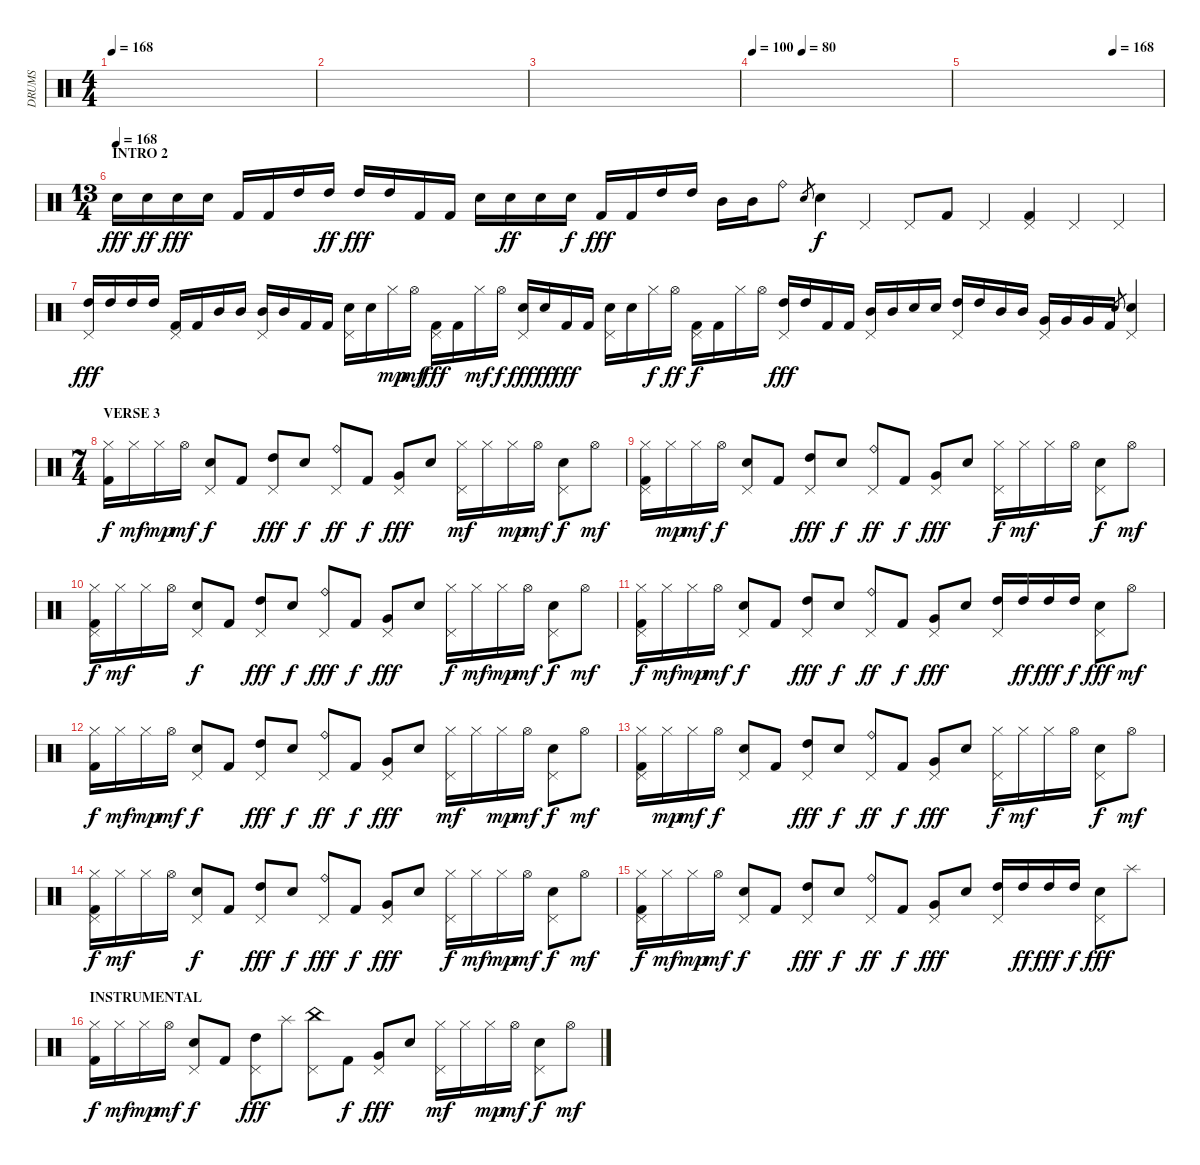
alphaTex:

\track ("DRUMS" "DRUMS") {instrument percussion}
\staff {score}
\articulation defaults
\ts (4 4)
\tempo 168
\clef neutral
\ks c
|
|
|
\tempo 100
\tempo (80 0.25)
|
\tempo (168 0.75)
|
\ts (13 4)
\section ("" "INTRO 2")
\tempo 164
\tempo (168)
"Electric Snare (hit)".16{dy fff} "Electric Snare (hit)".16{dy ff} "Electric Snare (hit)".16{dy fff} "Electric Snare (hit)".16 "Kick (hit) 2".16 "Kick (hit) 2".16 "High Tom (hit)".16 "High Tom (hit)".16{dy ff} "High Tom (hit)".16{dy fff} "High Tom (hit)".16 "Kick (hit) 2".16 "Kick (hit) 2".16 "Electric Snare (hit)".16 "Electric Snare (hit)".16{dy ff} "Electric Snare (hit)".16 "Electric Snare (hit)".16{dy f} "Kick (hit) 2".16{dy fff} "Kick (hit) 2".16 "High Tom (hit)".16 "High Tom (hit)".16 "Mid Tom (hit)".16 "Mid Tom (hit)".16 "Ride (bell)".8 "Electric Snare (hit)"{h}.8{gr} "Electric Snare (hit)".4{dy f} "Pedal Hi-Hat (hit)".4 "Pedal Hi-Hat (hit)".8 "Kick (hit) 2".8 "Pedal Hi-Hat (hit)".4 ("Pedal Hi-Hat (hit)" "Kick (hit) 2").4 "Pedal Hi-Hat (hit)".4 "Pedal Hi-Hat (hit)".4 |
("High Tom (hit)" "Pedal Hi-Hat (hit)").16{dy fff} "High Tom (hit)".16 "High Tom (hit)".16 "High Tom (hit)".16 ("Pedal Hi-Hat (hit)" "Kick (hit) 2").16 "Kick (hit) 2".16 "Mid Tom (hit)".16 "Mid Tom (hit)".16 ("Mid Tom (hit)" "Pedal Hi-Hat (hit)").16 "Mid Tom (hit)".16 "Kick (hit) 2".16 "Kick (hit) 2".16 ("Electric Snare (hit)" "Pedal Hi-Hat (hit)").16 "Electric Snare (hit)".16 "Hi-Hat (closed)".16{dy mp} "Hi-Hat (open)".16{dy mf} ("Pedal Hi-Hat (hit)" "Kick (hit) 2").16{dy fff} "Kick (hit) 2".16 "Hi-Hat (closed)".16{dy mf} "Hi-Hat (open)".16{dy f} ("Electric Snare (hit)" "Pedal Hi-Hat (hit)").16{dy fff} "Electric Snare (hit)".16{dy ff} "Kick (hit) 2".16{dy fff} "Kick (hit) 2".16 ("Electric Snare (hit)" "Pedal Hi-Hat (hit)").16 "Electric Snare (hit)".16 "Hi-Hat (closed)".16{dy f} "Hi-Hat (open)".16{dy ff} ("Pedal Hi-Hat (hit)" "Kick (hit) 2").16{dy f} "Kick (hit) 2".16 "Hi-Hat (closed)".16 "Hi-Hat (open)".16 ("High Tom (hit)" "Pedal Hi-Hat (hit)").16{dy fff} "High Tom (hit)".16 "Kick (hit) 2".16 "Kick (hit) 2".16 ("Mid Tom (hit)" "Pedal Hi-Hat (hit)").16 "Mid Tom (hit)".16 "Electric Snare (hit)".16 "Electric Snare (hit)".16 ("High Tom (hit)" "Pedal Hi-Hat (hit)").16 "High Tom (hit)".16 "Mid Tom (hit)".16 "Mid Tom (hit)".16 ("Very Low Tom (hit)" "Pedal Hi-Hat (hit)").16 "Very Low Tom (hit)".16 "Very Low Tom (hit)".16 "Kick (hit) 2".16 "Electric Snare (hit)"{h}.8{gr} ("Electric Snare (hit)" "Pedal Hi-Hat (hit)").4 |
\ts (7 4)
\section ("" "VERSE 3 ")
("Hi-Hat (closed)" "Kick (hit) 2").16{dy f} "Hi-Hat (closed)".16{dy mf} "Hi-Hat (closed)".16{dy mp} "Hi-Hat (open)".16{dy mf} ("Electric Snare (hit)" "Pedal Hi-Hat (hit)").8{dy f} "Kick (hit) 2".8 ("High Tom (hit)" "Pedal Hi-Hat (hit)").8{dy fff} "Electric Snare (hit)".8{dy f} ("Ride (bell)" "Pedal Hi-Hat (hit)").8{dy ff} "Kick (hit) 2".8{dy f} ("Very Low Tom (hit)" "Pedal Hi-Hat (hit)").8{dy fff} "Electric Snare (hit)".8 ("Hi-Hat (closed)" "Pedal Hi-Hat (hit)").16{dy mf} "Hi-Hat (closed)".16 "Hi-Hat (closed)".16{dy mp} "Hi-Hat (open)".16{dy mf} ("Electric Snare (hit)" "Pedal Hi-Hat (hit)").8{dy f} "Hi-Hat (open)".8{dy mf} |
("Hi-Hat (closed)" "Pedal Hi-Hat (hit)" "Kick (hit) 2").16 "Hi-Hat (closed)".16{dy mp} "Hi-Hat (closed)".16{dy mf} "Hi-Hat (open)".16{dy f} ("Electric Snare (hit)" "Pedal Hi-Hat (hit)").8 "Kick (hit) 2".8 ("High Tom (hit)" "Pedal Hi-Hat (hit)").8{dy fff} "Electric Snare (hit)".8{dy f} ("Ride (bell)" "Pedal Hi-Hat (hit)").8{dy ff} "Kick (hit) 2".8{dy f} ("Very Low Tom (hit)" "Pedal Hi-Hat (hit)").8{dy fff} "Electric Snare (hit)".8 ("Hi-Hat (closed)" "Pedal Hi-Hat (hit)").16{dy f} "Hi-Hat (closed)".16{dy mf} "Hi-Hat (closed)".16 "Hi-Hat (open)".16 ("Electric Snare (hit)" "Pedal Hi-Hat (hit)").8{dy f} "Hi-Hat (open)".8{dy mf} |
("Hi-Hat (closed)" "Pedal Hi-Hat (hit)" "Kick (hit) 2").16{dy f} "Hi-Hat (closed)".16{dy mf} "Hi-Hat (closed)".16 "Hi-Hat (open)".16 ("Electric Snare (hit)" "Pedal Hi-Hat (hit)").8{dy f} "Kick (hit) 2".8 ("High Tom (hit)" "Pedal Hi-Hat (hit)").8{dy fff} "Electric Snare (hit)".8{dy f} ("Ride (bell)" "Pedal Hi-Hat (hit)").8{dy fff} "Kick (hit) 2".8{dy f} ("Very Low Tom (hit)" "Pedal Hi-Hat (hit)").8{dy fff} "Electric Snare (hit)".8 ("Hi-Hat (closed)" "Pedal Hi-Hat (hit)").16{dy f} "Hi-Hat (closed)".16{dy mf} "Hi-Hat (closed)".16{dy mp} "Hi-Hat (open)".16{dy mf} ("Electric Snare (hit)" "Pedal Hi-Hat (hit)").8{dy f} "Hi-Hat (open)".8{dy mf} |
("Hi-Hat (closed)" "Pedal Hi-Hat (hit)" "Kick (hit) 2").16{dy f} "Hi-Hat (closed)".16{dy mf} "Hi-Hat (closed)".16{dy mp} "Hi-Hat (open)".16{dy mf} ("Electric Snare (hit)" "Pedal Hi-Hat (hit)").8{dy f} "Kick (hit) 2".8 ("High Tom (hit)" "Pedal Hi-Hat (hit)").8{dy fff} "Electric Snare (hit)".8{dy f} ("Ride (bell)" "Pedal Hi-Hat (hit)").8{dy ff} "Kick (hit) 2".8{dy f} ("Very Low Tom (hit)" "Pedal Hi-Hat (hit)").8{dy fff} "Electric Snare (hit)".8 ("High Tom (hit)" "Pedal Hi-Hat (hit)").16 "High Tom (hit)".16{dy ff} "High Tom (hit)".16{dy fff} "High Tom (hit)".16{dy f} ("Electric Snare (hit)" "Pedal Hi-Hat (hit)").8{dy fff} "Hi-Hat (open)".8{dy mf} |
("Hi-Hat (closed)" "Kick (hit) 2").16{dy f} "Hi-Hat (closed)".16{dy mf} "Hi-Hat (closed)".16{dy mp} "Hi-Hat (open)".16{dy mf} ("Electric Snare (hit)" "Pedal Hi-Hat (hit)").8{dy f} "Kick (hit) 2".8 ("High Tom (hit)" "Pedal Hi-Hat (hit)").8{dy fff} "Electric Snare (hit)".8{dy f} ("Ride (bell)" "Pedal Hi-Hat (hit)").8{dy ff} "Kick (hit) 2".8{dy f} ("Very Low Tom (hit)" "Pedal Hi-Hat (hit)").8{dy fff} "Electric Snare (hit)".8 ("Hi-Hat (closed)" "Pedal Hi-Hat (hit)").16{dy mf} "Hi-Hat (closed)".16 "Hi-Hat (closed)".16{dy mp} "Hi-Hat (open)".16{dy mf} ("Electric Snare (hit)" "Pedal Hi-Hat (hit)").8{dy f} "Hi-Hat (open)".8{dy mf} |
("Hi-Hat (closed)" "Pedal Hi-Hat (hit)" "Kick (hit) 2").16 "Hi-Hat (closed)".16{dy mp} "Hi-Hat (closed)".16{dy mf} "Hi-Hat (open)".16{dy f} ("Electric Snare (hit)" "Pedal Hi-Hat (hit)").8 "Kick (hit) 2".8 ("High Tom (hit)" "Pedal Hi-Hat (hit)").8{dy fff} "Electric Snare (hit)".8{dy f} ("Ride (bell)" "Pedal Hi-Hat (hit)").8{dy ff} "Kick (hit) 2".8{dy f} ("Very Low Tom (hit)" "Pedal Hi-Hat (hit)").8{dy fff} "Electric Snare (hit)".8 ("Hi-Hat (closed)" "Pedal Hi-Hat (hit)").16{dy f} "Hi-Hat (closed)".16{dy mf} "Hi-Hat (closed)".16 "Hi-Hat (open)".16 ("Electric Snare (hit)" "Pedal Hi-Hat (hit)").8{dy f} "Hi-Hat (open)".8{dy mf} |
("Hi-Hat (closed)" "Pedal Hi-Hat (hit)" "Kick (hit) 2").16{dy f} "Hi-Hat (closed)".16{dy mf} "Hi-Hat (closed)".16 "Hi-Hat (open)".16 ("Electric Snare (hit)" "Pedal Hi-Hat (hit)").8{dy f} "Kick (hit) 2".8 ("High Tom (hit)" "Pedal Hi-Hat (hit)").8{dy fff} "Electric Snare (hit)".8{dy f} ("Ride (bell)" "Pedal Hi-Hat (hit)").8{dy fff} "Kick (hit) 2".8{dy f} ("Very Low Tom (hit)" "Pedal Hi-Hat (hit)").8{dy fff} "Electric Snare (hit)".8 ("Hi-Hat (closed)" "Pedal Hi-Hat (hit)").16{dy f} "Hi-Hat (closed)".16{dy mf} "Hi-Hat (closed)".16{dy mp} "Hi-Hat (open)".16{dy mf} ("Electric Snare (hit)" "Pedal Hi-Hat (hit)").8{dy f} "Hi-Hat (open)".8{dy mf} |
("Hi-Hat (closed)" "Pedal Hi-Hat (hit)" "Kick (hit) 2").16{dy f} "Hi-Hat (closed)".16{dy mf} "Hi-Hat (closed)".16{dy mp} "Hi-Hat (open)".16{dy mf} ("Electric Snare (hit)" "Pedal Hi-Hat (hit)").8{dy f} "Kick (hit) 2".8 ("High Tom (hit)" "Pedal Hi-Hat (hit)").8{dy fff} "Electric Snare (hit)".8{dy f} ("Ride (bell)" "Pedal Hi-Hat (hit)").8{dy ff} "Kick (hit) 2".8{dy f} ("Very Low Tom (hit)" "Pedal Hi-Hat (hit)").8{dy fff} "Electric Snare (hit)".8 ("High Tom (hit)" "Pedal Hi-Hat (hit)").16 "High Tom (hit)".16{dy ff} "High Tom (hit)".16{dy fff} "High Tom (hit)".16{dy f} ("Electric Snare (hit)" "Pedal Hi-Hat (hit)").8{dy fff} "Splash (hit)".8 |
\section ("" "INSTRUMENTAL")
("Hi-Hat (closed)" "Kick (hit) 2").16{dy f} "Hi-Hat (closed)".16{dy mf} "Hi-Hat (closed)".16{dy mp} "Hi-Hat (open)".16{dy mf} ("Electric Snare (hit)" "Pedal Hi-Hat (hit)").8{dy f} "Kick (hit) 2".8 ("High Tom (hit)" "Pedal Hi-Hat (hit)").8{dy fff} "Splash (hit)".8 ("China (hit)" "Pedal Hi-Hat (hit)").8 "Kick (hit) 2".8{dy f} ("Very Low Tom (hit)" "Pedal Hi-Hat (hit)").8{dy fff} "Electric Snare (hit)".8 ("Hi-Hat (closed)" "Pedal Hi-Hat (hit)").16{dy mf} "Hi-Hat (closed)".16 "Hi-Hat (closed)".16{dy mp} "Hi-Hat (open)".16{dy mf} ("Electric Snare (hit)" "Pedal Hi-Hat (hit)").8{dy f} "Hi-Hat (open)".8{dy mf}
